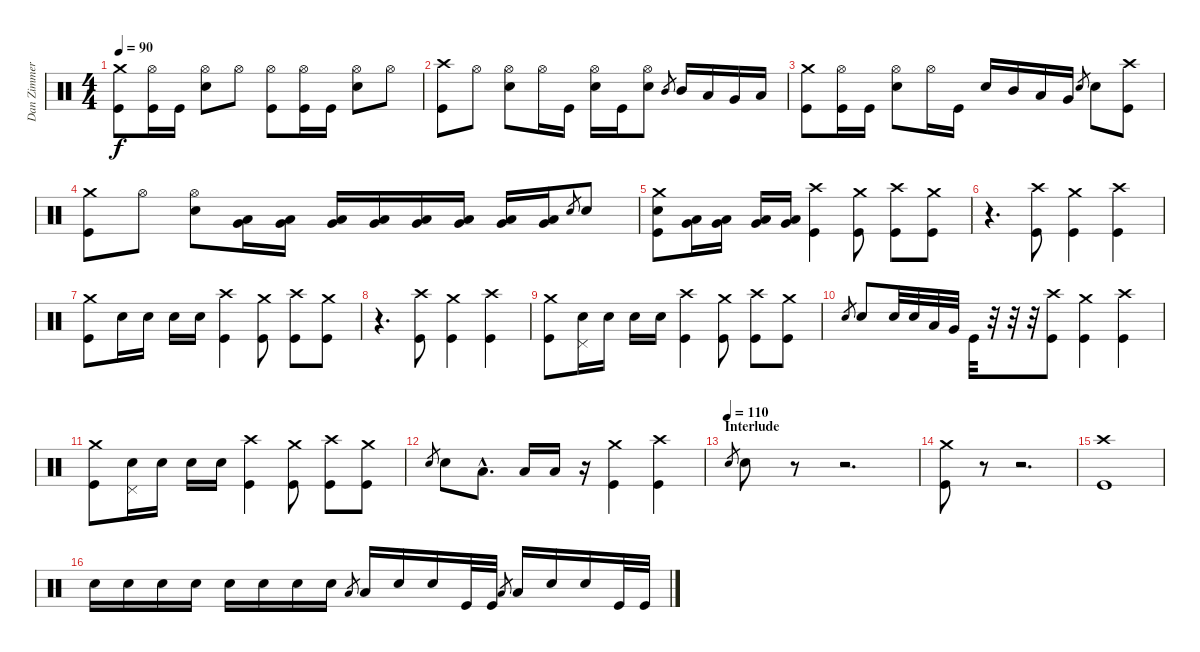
\track ("Dan Zimmerman" "Dan Zimmer") {instrument percussion}
\staff {score}
\articulation defaults
\ts (4 4)
\tempo 90
\clef neutral
\ks c
("Crash medium (hit)" "Kick (hit)").8{dy f} ("Hi-Hat (open)" "Kick (hit)").16 "Kick (hit)".16 ("Hi-Hat (open)" "Snare (hit) 2").8 "Hi-Hat (open)".8 ("Hi-Hat (open)" "Kick (hit)").8 ("Hi-Hat (open)" "Kick (hit)").16 "Kick (hit)".16 ("Hi-Hat (open)" "Snare (hit) 2").8 "Hi-Hat (open)".8 |
("Crash high (hit)" "Kick (hit)").8 "Hi-Hat (open)".8 ("Hi-Hat (open)" "Snare (hit) 2").8 "Hi-Hat (open)".16 "Kick (hit)".16 ("Hi-Hat (open)" "Snare (hit) 2").16 "Kick (hit)".16 ("Hi-Hat (open)" "Snare (hit) 2").8 "Mid Tom (hit)".8{gr} "Mid Tom (hit)".16 "Low Tom (hit)".16 "Very Low Tom (hit)".16 "Low Floor Tom (hit)".16 |
("Crash medium (hit)" "Kick (hit)").8 ("Hi-Hat (open)" "Kick (hit)").16 "Kick (hit)".16 ("Hi-Hat (open)" "Snare (hit) 2").8 "Hi-Hat (open)".16 "Kick (hit)".16 "Snare (hit) 2".16 "Mid Tom (hit)".16 "Low Tom (hit)".16 "Very Low Tom (hit)".16 "Snare (hit) 2".8{gr} "Snare (hit) 2".8 ("Crash high (hit)" "Kick (hit)").8 |
("Crash medium (hit)" "Kick (hit)").8 "Hi-Hat (open)".8 ("Hi-Hat (open)" "Snare (hit) 2").8 ("Very Low Tom (hit)" "Low Floor Tom (hit)").16 ("Very Low Tom (hit)" "Low Floor Tom (hit)").16 ("Very Low Tom (hit)" "Low Floor Tom (hit)").16 ("Very Low Tom (hit)" "Low Floor Tom (hit)").16 ("Very Low Tom (hit)" "Low Floor Tom (hit)").16 ("Very Low Tom (hit)" "Low Floor Tom (hit)").16 ("Very Low Tom (hit)" "Low Floor Tom (hit)").16 ("Very Low Tom (hit)" "Low Floor Tom (hit)").16 "Snare (hit) 2".8{gr} "Snare (hit) 2".8 |
("Crash medium (hit)" "Snare (hit) 2" "Kick (hit)").8 ("Low Tom (hit)" "Very Low Tom (hit)").16 ("Low Tom (hit)" "Very Low Tom (hit)").16 ("Low Tom (hit)" "Very Low Tom (hit)").16 ("Low Tom (hit)" "Very Low Tom (hit)").16 ("Crash high (hit)" "Kick (hit)").4 ("Crash medium (hit)" "Kick (hit)").8 ("Crash high (hit)" "Kick (hit)").8 ("Crash medium (hit)" "Kick (hit)").8 |
r.4{d} ("Crash high (hit)" "Kick (hit)").8 ("Crash medium (hit)" "Kick (hit)").4 ("Crash high (hit)" "Kick (hit)").4 |
("Crash medium (hit)" "Kick (hit)").8 "Snare (hit) 2".16 "Snare (hit) 2".16 "Snare (hit) 2".16 "Snare (hit) 2".16 ("Crash high (hit)" "Kick (hit)").4 ("Crash medium (hit)" "Kick (hit)").8 ("Crash high (hit)" "Kick (hit)").8 ("Crash medium (hit)" "Kick (hit)").8 |
r.4{d} ("Crash high (hit)" "Kick (hit)").8 ("Crash medium (hit)" "Kick (hit)").4 ("Crash high (hit)" "Kick (hit)").4 |
("Crash medium (hit)" "Kick (hit)").8 ("Pedal Hi-Hat (hit)" "Snare (hit) 2").16 "Snare (hit) 2".16 "Snare (hit) 2".16 "Snare (hit) 2".16 ("Crash high (hit)" "Kick (hit)").4 ("Crash medium (hit)" "Kick (hit)").8 ("Crash high (hit)" "Kick (hit)").8 ("Crash medium (hit)" "Kick (hit)").8 |
"Snare (hit) 2".8{gr} "Snare (hit) 2".8 "Snare (hit) 2".32 "Snare (hit) 2".32 "Low Tom (hit)".32 "Very Low Tom (hit)".32 "Kick (hit)".32 r.32 r.32 r.32 ("Crash high (hit)" "Kick (hit)").8 ("Crash medium (hit)" "Kick (hit)").4 ("Crash high (hit)" "Kick (hit)").4 |
("Crash medium (hit)" "Kick (hit)").8 ("Pedal Hi-Hat (hit)" "Snare (hit) 2").16 "Snare (hit) 2".16 "Snare (hit) 2".16 "Snare (hit) 2".16 ("Crash high (hit)" "Kick (hit)").4 ("Crash medium (hit)" "Kick (hit)").8 ("Crash high (hit)" "Kick (hit)").8 ("Crash medium (hit)" "Kick (hit)").8 |
"Snare (hit) 2".8{gr} "Snare (hit) 2".8 "Low Tom (hit)"{hac}.8{d} "Low Tom (hit)".16 "Low Tom (hit)".16 r.16 ("Crash medium (hit)" "Kick (hit)").4 ("Crash high (hit)" "Kick (hit)").4 |
\section ("" "Interlude")
\tempo (110)
"Snare (hit) 2".8{gr} "Snare (hit) 2".8 r.8 r.2{d} |
("Crash medium (hit)" "Kick (hit)").8 r.8{volume 0} r.2{d} |
("Crash high (hit)" "Kick (hit)").1{volume 13} |
"Snare (hit) 2".16 "Snare (hit) 2".16 "Snare (hit) 2".16 "Snare (hit) 2".16 "Snare (hit) 2".16 "Snare (hit) 2".16 "Snare (hit) 2".16 "Snare (hit) 2".16 "Low Tom (hit)".8{gr} "Low Tom (hit)".16 "Snare (hit) 2".16 "Snare (hit) 2".16 "Kick (hit)".32 "Kick (hit)".32 "Low Tom (hit)".8{gr} "Low Tom (hit)".16 "Snare (hit) 2".16 "Snare (hit) 2".16 "Kick (hit)".32 "Kick (hit)".32
